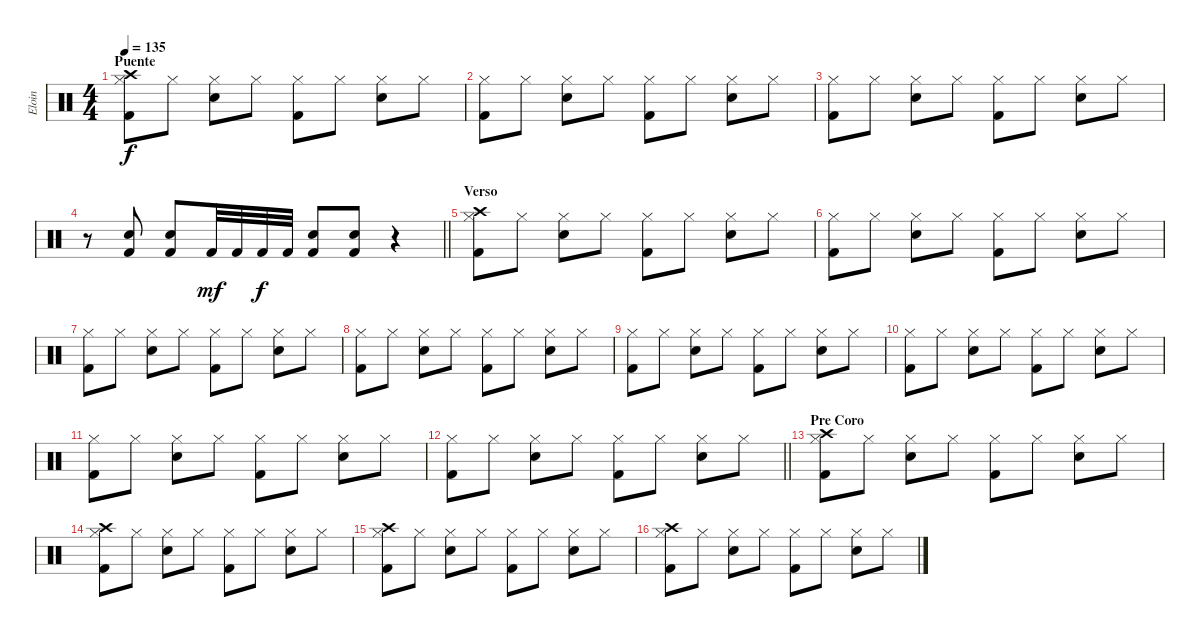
\track ("Eloin" "Eloin") {instrument percussion}
\staff {score}
\articulation defaults
\ts (4 4)
\section ("" "Puente")
\tempo 135
\clef neutral
\ks c
("Crash high (hit)" "Hi-Hat (closed)" "Kick (hit) 2").8{dy f} "Hi-Hat (closed)".8 ("Hi-Hat (closed)" "Electric Snare (hit)").8 "Hi-Hat (closed)".8 ("Hi-Hat (closed)" "Kick (hit) 2").8 "Hi-Hat (closed)".8 ("Hi-Hat (closed)" "Electric Snare (hit)").8 "Hi-Hat (closed)".8 |
("Hi-Hat (closed)" "Kick (hit) 2").8 "Hi-Hat (closed)".8 ("Hi-Hat (closed)" "Electric Snare (hit)").8 "Hi-Hat (closed)".8 ("Hi-Hat (closed)" "Kick (hit) 2").8 "Hi-Hat (closed)".8 ("Hi-Hat (closed)" "Electric Snare (hit)").8 "Hi-Hat (closed)".8 |
("Hi-Hat (closed)" "Kick (hit) 2").8 "Hi-Hat (closed)".8 ("Hi-Hat (closed)" "Electric Snare (hit)").8 "Hi-Hat (closed)".8 ("Hi-Hat (closed)" "Kick (hit) 2").8 "Hi-Hat (closed)".8 ("Hi-Hat (closed)" "Electric Snare (hit)").8 "Hi-Hat (closed)".8 |
\barLineRight lightlight
r.8 ("Electric Snare (hit)" "Kick (hit) 2").8 ("Electric Snare (hit)" "Kick (hit) 2").8 "Kick (hit) 2".32{dy mf} "Kick (hit) 2".32 "Kick (hit) 2".32{dy f} "Kick (hit) 2".32 ("Electric Snare (hit)" "Kick (hit) 2").8 ("Electric Snare (hit)" "Kick (hit) 2").8 r.4 |
\section ("" "Verso")
("Crash high (hit)" "Hi-Hat (closed)" "Kick (hit) 2").8 "Hi-Hat (closed)".8 ("Hi-Hat (closed)" "Electric Snare (hit)").8 "Hi-Hat (closed)".8 ("Hi-Hat (closed)" "Kick (hit) 2").8 "Hi-Hat (closed)".8 ("Hi-Hat (closed)" "Electric Snare (hit)").8 "Hi-Hat (closed)".8 |
("Hi-Hat (closed)" "Kick (hit) 2").8 "Hi-Hat (closed)".8 ("Hi-Hat (closed)" "Electric Snare (hit)").8 "Hi-Hat (closed)".8 ("Hi-Hat (closed)" "Kick (hit) 2").8 "Hi-Hat (closed)".8 ("Hi-Hat (closed)" "Electric Snare (hit)").8 "Hi-Hat (closed)".8 |
("Hi-Hat (closed)" "Kick (hit) 2").8 "Hi-Hat (closed)".8 ("Hi-Hat (closed)" "Electric Snare (hit)").8 "Hi-Hat (closed)".8 ("Hi-Hat (closed)" "Kick (hit) 2").8 "Hi-Hat (closed)".8 ("Hi-Hat (closed)" "Electric Snare (hit)").8 "Hi-Hat (closed)".8 |
("Hi-Hat (closed)" "Kick (hit) 2").8 "Hi-Hat (closed)".8 ("Hi-Hat (closed)" "Electric Snare (hit)").8 "Hi-Hat (closed)".8 ("Hi-Hat (closed)" "Kick (hit) 2").8 "Hi-Hat (closed)".8 ("Hi-Hat (closed)" "Electric Snare (hit)").8 "Hi-Hat (closed)".8 |
("Hi-Hat (closed)" "Kick (hit) 2").8 "Hi-Hat (closed)".8 ("Hi-Hat (closed)" "Electric Snare (hit)").8 "Hi-Hat (closed)".8 ("Hi-Hat (closed)" "Kick (hit) 2").8 "Hi-Hat (closed)".8 ("Hi-Hat (closed)" "Electric Snare (hit)").8 "Hi-Hat (closed)".8 |
("Hi-Hat (closed)" "Kick (hit) 2").8 "Hi-Hat (closed)".8 ("Hi-Hat (closed)" "Electric Snare (hit)").8 "Hi-Hat (closed)".8 ("Hi-Hat (closed)" "Kick (hit) 2").8 "Hi-Hat (closed)".8 ("Hi-Hat (closed)" "Electric Snare (hit)").8 "Hi-Hat (closed)".8 |
("Hi-Hat (closed)" "Kick (hit) 2").8 "Hi-Hat (closed)".8 ("Hi-Hat (closed)" "Electric Snare (hit)").8 "Hi-Hat (closed)".8 ("Hi-Hat (closed)" "Kick (hit) 2").8 "Hi-Hat (closed)".8 ("Hi-Hat (closed)" "Electric Snare (hit)").8 "Hi-Hat (closed)".8 |
\barLineRight lightlight
("Hi-Hat (closed)" "Kick (hit) 2").8 "Hi-Hat (closed)".8 ("Hi-Hat (closed)" "Electric Snare (hit)").8 "Hi-Hat (closed)".8 ("Hi-Hat (closed)" "Kick (hit) 2").8 "Hi-Hat (closed)".8 ("Hi-Hat (closed)" "Electric Snare (hit)").8 "Hi-Hat (closed)".8 |
\section ("" "Pre Coro")
("Crash high (hit)" "Hi-Hat (closed)" "Kick (hit) 2").8 "Hi-Hat (closed)".8 ("Hi-Hat (closed)" "Electric Snare (hit)").8 "Hi-Hat (closed)".8 ("Hi-Hat (closed)" "Kick (hit) 2").8 "Hi-Hat (closed)".8 ("Hi-Hat (closed)" "Electric Snare (hit)").8 "Hi-Hat (closed)".8 |
("Crash high (hit)" "Hi-Hat (closed)" "Kick (hit) 2").8 "Hi-Hat (closed)".8 ("Hi-Hat (closed)" "Electric Snare (hit)").8 "Hi-Hat (closed)".8 ("Hi-Hat (closed)" "Kick (hit) 2").8 "Hi-Hat (closed)".8 ("Hi-Hat (closed)" "Electric Snare (hit)").8 "Hi-Hat (closed)".8 |
("Crash high (hit)" "Hi-Hat (closed)" "Kick (hit) 2").8 "Hi-Hat (closed)".8 ("Hi-Hat (closed)" "Electric Snare (hit)").8 "Hi-Hat (closed)".8 ("Hi-Hat (closed)" "Kick (hit) 2").8 "Hi-Hat (closed)".8 ("Hi-Hat (closed)" "Electric Snare (hit)").8 "Hi-Hat (closed)".8 |
("Crash high (hit)" "Hi-Hat (closed)" "Kick (hit) 2").8 "Hi-Hat (closed)".8 ("Hi-Hat (closed)" "Electric Snare (hit)").8 "Hi-Hat (closed)".8 ("Hi-Hat (closed)" "Kick (hit) 2").8 "Hi-Hat (closed)".8 ("Hi-Hat (closed)" "Electric Snare (hit)").8 "Hi-Hat (closed)".8
